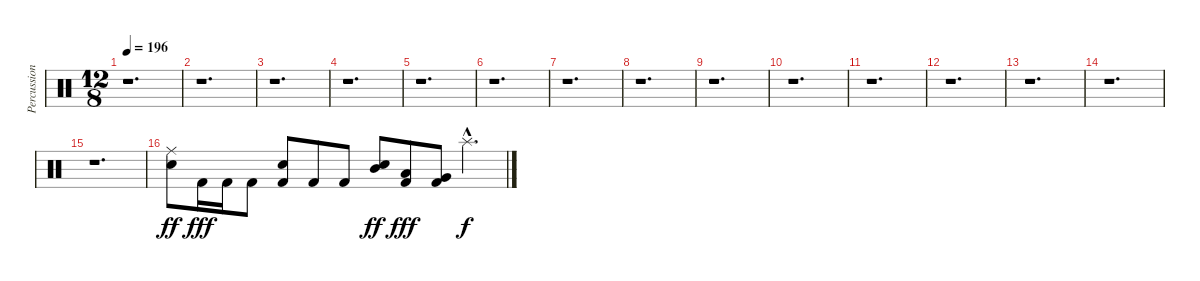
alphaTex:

\track ("Percussion" "Percussion") {instrument percussion}
\staff {score}
\articulation defaults
\ts (12 8)
\tempo 196
\clef neutral
\ks c
r.1{d dy ff} |
r.1{d} |
r.1{d} |
r.1{d} |
r.1{d} |
r.1{d} |
r.1{d} |
r.1{d} |
r.1{d} |
r.1{d} |
r.1{d} |
r.1{d} |
r.1{d} |
r.1{d} |
r.1{d} |
("Ride (middle)" "Electric Snare (hit)").8{volume 12} "Kick (hit) 2".16{dy fff} "Kick (hit) 2".16 "Kick (hit) 2".8 ("Electric Snare (hit)" "Kick (hit) 2").8 "Kick (hit) 2".8 "Kick (hit) 2".8 ("Mid Tom (hit)" "Electric Snare (hit)").8{dy ff} ("Low Tom (hit)" "Kick (hit) 2").8{dy fff} ("Very Low Tom (hit)" "Kick (hit) 2").8 "Splash (hit)"{hac}.4{d dy f}
